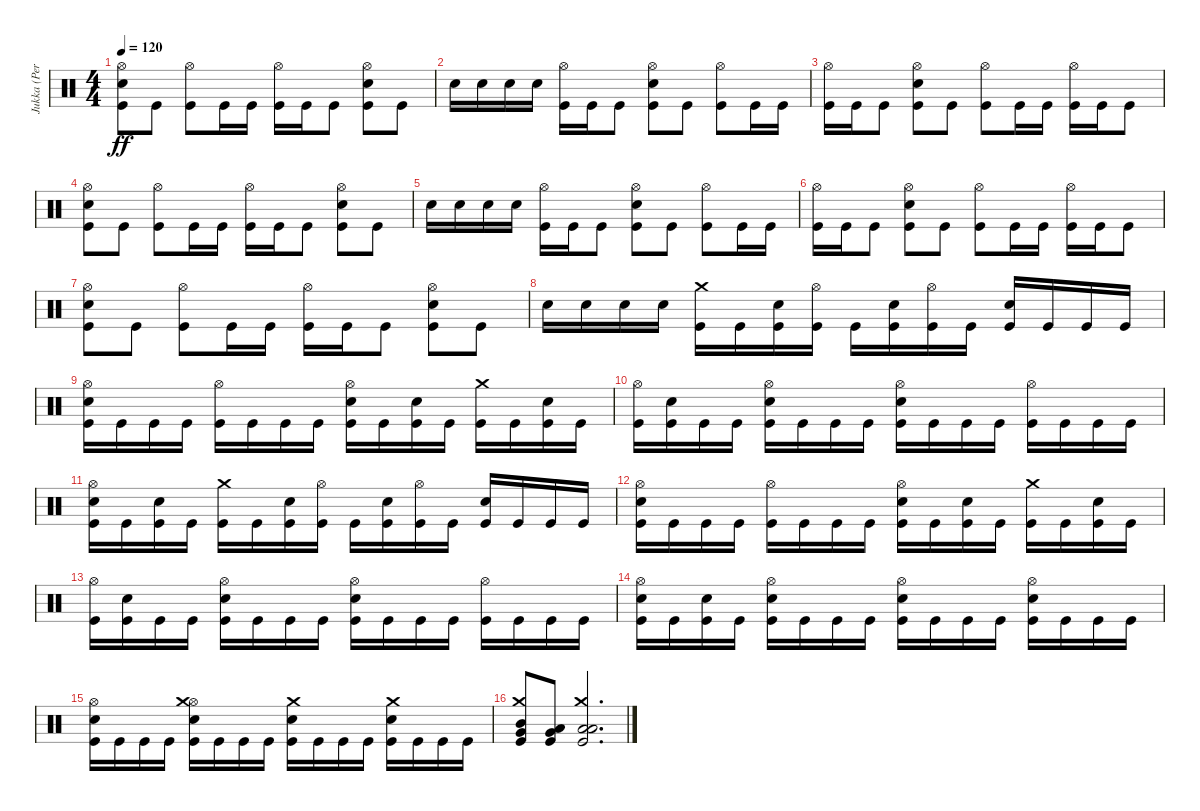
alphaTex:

\track ("Jukka (Percussion)" "Jukka (Per") {instrument percussion}
\staff {score}
\articulation defaults
\ts (4 4)
\tempo 120
\clef neutral
\ks c
("Kick (hit)" "Electric Snare (hit)" "Hi-Hat (open)").8{dy ff} "Kick (hit)".8 ("Kick (hit)" "Hi-Hat (open)").8 "Kick (hit)".16 "Kick (hit)".16 ("Kick (hit)" "Hi-Hat (open)").16 "Kick (hit)".16 "Kick (hit)".8 ("Kick (hit)" "Electric Snare (hit)" "Hi-Hat (open)").8 "Kick (hit)".8 |
"Electric Snare (hit)".16 "Electric Snare (hit)".16 "Electric Snare (hit)".16 "Electric Snare (hit)".16 ("Kick (hit)" "Hi-Hat (open)").16 "Kick (hit)".16 "Kick (hit)".8 ("Kick (hit)" "Electric Snare (hit)" "Hi-Hat (open)").8 "Kick (hit)".8 ("Kick (hit)" "Hi-Hat (open)").8 "Kick (hit)".16 "Kick (hit)".16 |
("Kick (hit)" "Hi-Hat (open)").16 "Kick (hit)".16 "Kick (hit)".8 ("Kick (hit)" "Electric Snare (hit)" "Hi-Hat (open)").8 "Kick (hit)".8 ("Kick (hit)" "Hi-Hat (open)").8 "Kick (hit)".16 "Kick (hit)".16 ("Kick (hit)" "Hi-Hat (open)").16 "Kick (hit)".16 "Kick (hit)".8 |
("Kick (hit)" "Electric Snare (hit)" "Hi-Hat (open)").8 "Kick (hit)".8 ("Kick (hit)" "Hi-Hat (open)").8 "Kick (hit)".16 "Kick (hit)".16 ("Kick (hit)" "Hi-Hat (open)").16 "Kick (hit)".16 "Kick (hit)".8 ("Kick (hit)" "Electric Snare (hit)" "Hi-Hat (open)").8 "Kick (hit)".8 |
"Electric Snare (hit)".16 "Electric Snare (hit)".16 "Electric Snare (hit)".16 "Electric Snare (hit)".16 ("Kick (hit)" "Hi-Hat (open)").16 "Kick (hit)".16 "Kick (hit)".8 ("Kick (hit)" "Electric Snare (hit)" "Hi-Hat (open)").8 "Kick (hit)".8 ("Kick (hit)" "Hi-Hat (open)").8 "Kick (hit)".16 "Kick (hit)".16 |
("Kick (hit)" "Hi-Hat (open)").16 "Kick (hit)".16 "Kick (hit)".8 ("Kick (hit)" "Electric Snare (hit)" "Hi-Hat (open)").8 "Kick (hit)".8 ("Kick (hit)" "Hi-Hat (open)").8 "Kick (hit)".16 "Kick (hit)".16 ("Kick (hit)" "Hi-Hat (open)").16 "Kick (hit)".16 "Kick (hit)".8 |
("Kick (hit)" "Electric Snare (hit)" "Hi-Hat (open)").8 "Kick (hit)".8 ("Kick (hit)" "Hi-Hat (open)").8 "Kick (hit)".16 "Kick (hit)".16 ("Kick (hit)" "Hi-Hat (open)").16 "Kick (hit)".16 "Kick (hit)".8 ("Kick (hit)" "Electric Snare (hit)" "Hi-Hat (open)").8 "Kick (hit)".8 |
"Electric Snare (hit)".16 "Electric Snare (hit)".16 "Electric Snare (hit)".16 "Electric Snare (hit)".16 ("Kick (hit)" "Crash medium (hit)").16 "Kick (hit)".16 ("Kick (hit)" "Electric Snare (hit)").16 ("Kick (hit)" "Hi-Hat (open)").16 "Kick (hit)".16 ("Kick (hit)" "Electric Snare (hit)").16 ("Kick (hit)" "Hi-Hat (open)").16 "Kick (hit)".16 ("Kick (hit)" "Electric Snare (hit)").16 "Kick (hit)".16 "Kick (hit)".16 "Kick (hit)".16 |
("Kick (hit)" "Electric Snare (hit)" "Hi-Hat (open)").16 "Kick (hit)".16 "Kick (hit)".16 "Kick (hit)".16 ("Kick (hit)" "Hi-Hat (open)").16 "Kick (hit)".16 "Kick (hit)".16 "Kick (hit)".16 ("Kick (hit)" "Electric Snare (hit)" "Hi-Hat (open)").16 "Kick (hit)".16 ("Kick (hit)" "Electric Snare (hit)").16 "Kick (hit)".16 ("Kick (hit)" "Crash medium (hit)").16 "Kick (hit)".16 ("Kick (hit)" "Electric Snare (hit)").16 "Kick (hit)".16 |
("Kick (hit)" "Hi-Hat (open)").16 ("Kick (hit)" "Electric Snare (hit)").16 "Kick (hit)".16 "Kick (hit)".16 ("Kick (hit)" "Electric Snare (hit)" "Hi-Hat (open)").16 "Kick (hit)".16 "Kick (hit)".16 "Kick (hit)".16 ("Kick (hit)" "Electric Snare (hit)" "Hi-Hat (open)").16 "Kick (hit)".16 "Kick (hit)".16 "Kick (hit)".16 ("Kick (hit)" "Hi-Hat (open)").16 "Kick (hit)".16 "Kick (hit)".16 "Kick (hit)".16 |
("Kick (hit)" "Electric Snare (hit)" "Hi-Hat (open)").16 "Kick (hit)".16 ("Kick (hit)" "Electric Snare (hit)").16 "Kick (hit)".16 ("Kick (hit)" "Crash medium (hit)").16 "Kick (hit)".16 ("Kick (hit)" "Electric Snare (hit)").16 ("Kick (hit)" "Hi-Hat (open)").16 "Kick (hit)".16 ("Kick (hit)" "Electric Snare (hit)").16 ("Kick (hit)" "Hi-Hat (open)").16 "Kick (hit)".16 ("Kick (hit)" "Electric Snare (hit)").16 "Kick (hit)".16 "Kick (hit)".16 "Kick (hit)".16 |
("Kick (hit)" "Electric Snare (hit)" "Hi-Hat (open)").16 "Kick (hit)".16 "Kick (hit)".16 "Kick (hit)".16 ("Kick (hit)" "Hi-Hat (open)").16 "Kick (hit)".16 "Kick (hit)".16 "Kick (hit)".16 ("Kick (hit)" "Electric Snare (hit)" "Hi-Hat (open)").16 "Kick (hit)".16 ("Kick (hit)" "Electric Snare (hit)").16 "Kick (hit)".16 ("Kick (hit)" "Crash medium (hit)").16 "Kick (hit)".16 ("Kick (hit)" "Electric Snare (hit)").16 "Kick (hit)".16 |
("Kick (hit)" "Hi-Hat (open)").16 ("Kick (hit)" "Electric Snare (hit)").16 "Kick (hit)".16 "Kick (hit)".16 ("Kick (hit)" "Electric Snare (hit)" "Hi-Hat (open)").16 "Kick (hit)".16 "Kick (hit)".16 "Kick (hit)".16 ("Kick (hit)" "Electric Snare (hit)" "Hi-Hat (open)").16 "Kick (hit)".16 "Kick (hit)".16 "Kick (hit)".16 ("Kick (hit)" "Hi-Hat (open)").16 "Kick (hit)".16 "Kick (hit)".16 "Kick (hit)".16 |
("Kick (hit)" "Electric Snare (hit)" "Hi-Hat (open)").16 "Kick (hit)".16 ("Kick (hit)" "Electric Snare (hit)").16 "Kick (hit)".16 ("Kick (hit)" "Electric Snare (hit)" "Hi-Hat (open)").16 "Kick (hit)".16 "Kick (hit)".16 "Kick (hit)".16 ("Kick (hit)" "Electric Snare (hit)" "Hi-Hat (open)").16 "Kick (hit)".16 "Kick (hit)".16 "Kick (hit)".16 ("Kick (hit)" "Electric Snare (hit)" "Hi-Hat (open)").16 "Kick (hit)".16 "Kick (hit)".16 "Kick (hit)".16 |
("Kick (hit)" "Electric Snare (hit)" "Hi-Hat (open)").16 "Kick (hit)".16 "Kick (hit)".16 "Kick (hit)".16 ("Kick (hit)" "Electric Snare (hit)" "Hi-Hat (open)" "Crash medium (hit)").16 "Kick (hit)".16 "Kick (hit)".16 "Kick (hit)".16 ("Kick (hit)" "Electric Snare (hit)" "Crash medium (hit)").16 "Kick (hit)".16 "Kick (hit)".16 "Kick (hit)".16 ("Kick (hit)" "Electric Snare (hit)" "Crash medium (hit)").16 "Kick (hit)".16 "Kick (hit)".16 "Kick (hit)".16 |
("Kick (hit)" "Very Low Tom (hit)" "Mid Tom (hit)" "Crash medium (hit)").8 ("Kick (hit)" "Low Floor Tom (hit)" "Very Low Tom (hit)").8 ("Kick (hit)" "Low Floor Tom (hit)" "Low Tom (hit)" "Crash medium (hit)").2{d}
